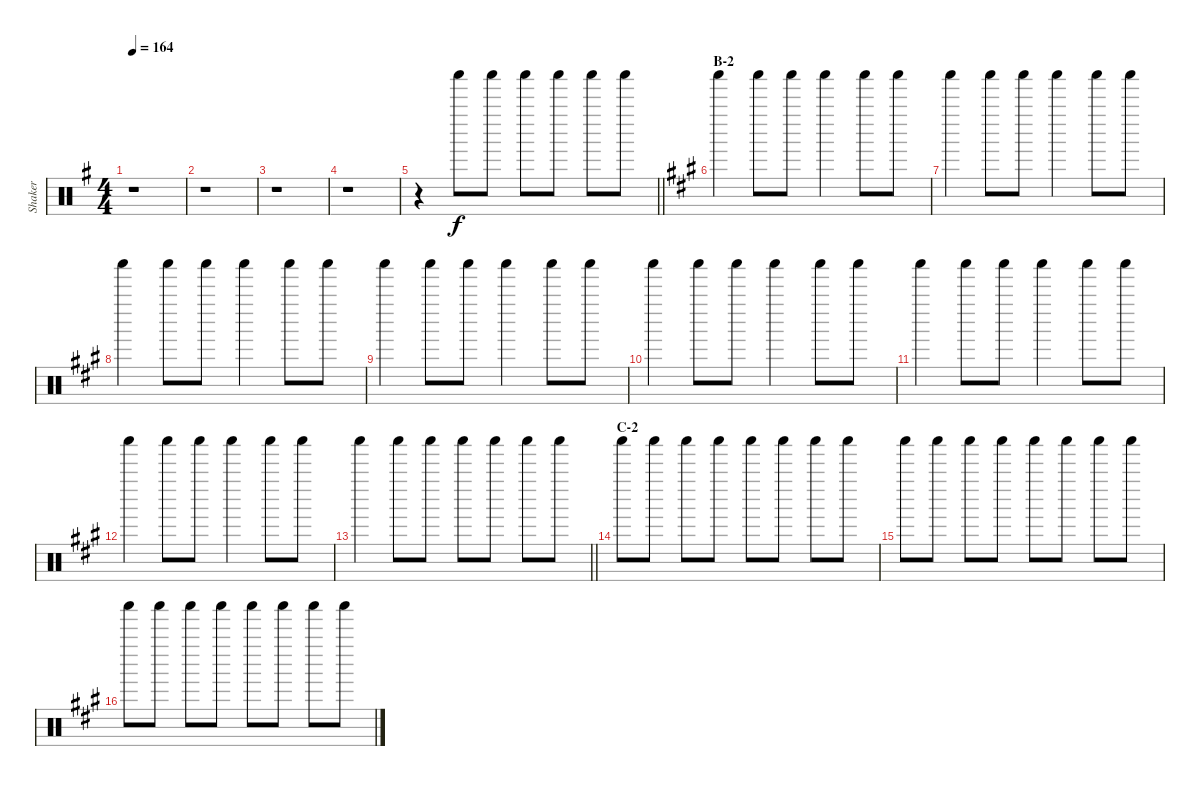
\track ("Shaker" "Shaker") {instrument percussion}
\staff {score}
\articulation defaults
\ts (4 4)
\tempo 164
\clef neutral
\ks g
r.1{dy f} |
r.1 |
r.1 |
r.1 |
\barLineRight lightlight
r.4 "Shaker (hit)".8 "Shaker (hit)".8 "Shaker (hit)".8 "Shaker (hit)".8 "Shaker (hit)".8 "Shaker (hit)".8 |
\section ("" "B-2")
\ks a "Shaker (hit)".4 "Shaker (hit)".8 "Shaker (hit)".8 "Shaker (hit)".4 "Shaker (hit)".8 "Shaker (hit)".8
|
"Shaker (hit)".4 "Shaker (hit)".8 "Shaker (hit)".8 "Shaker (hit)".4 "Shaker (hit)".8 "Shaker (hit)".8 |
"Shaker (hit)".4 "Shaker (hit)".8 "Shaker (hit)".8 "Shaker (hit)".4 "Shaker (hit)".8 "Shaker (hit)".8 |
"Shaker (hit)".4 "Shaker (hit)".8 "Shaker (hit)".8 "Shaker (hit)".4 "Shaker (hit)".8 "Shaker (hit)".8 |
"Shaker (hit)".4 "Shaker (hit)".8 "Shaker (hit)".8 "Shaker (hit)".4 "Shaker (hit)".8 "Shaker (hit)".8 |
"Shaker (hit)".4 "Shaker (hit)".8 "Shaker (hit)".8 "Shaker (hit)".4 "Shaker (hit)".8 "Shaker (hit)".8 |
"Shaker (hit)".4 "Shaker (hit)".8 "Shaker (hit)".8 "Shaker (hit)".4 "Shaker (hit)".8 "Shaker (hit)".8 |
\barLineRight lightlight "Shaker (hit)".4 "Shaker (hit)".8 "Shaker (hit)".8 "Shaker (hit)".8 "Shaker (hit)".8 "Shaker (hit)".8 "Shaker (hit)".8
|
\section ("" "C-2")
"Shaker (hit)".8 "Shaker (hit)".8 "Shaker (hit)".8 "Shaker (hit)".8 "Shaker (hit)".8 "Shaker (hit)".8 "Shaker (hit)".8 "Shaker (hit)".8 |
"Shaker (hit)".8 "Shaker (hit)".8 "Shaker (hit)".8 "Shaker (hit)".8 "Shaker (hit)".8 "Shaker (hit)".8 "Shaker (hit)".8 "Shaker (hit)".8 |
"Shaker (hit)".8 "Shaker (hit)".8 "Shaker (hit)".8 "Shaker (hit)".8 "Shaker (hit)".8 "Shaker (hit)".8 "Shaker (hit)".8 "Shaker (hit)".8
